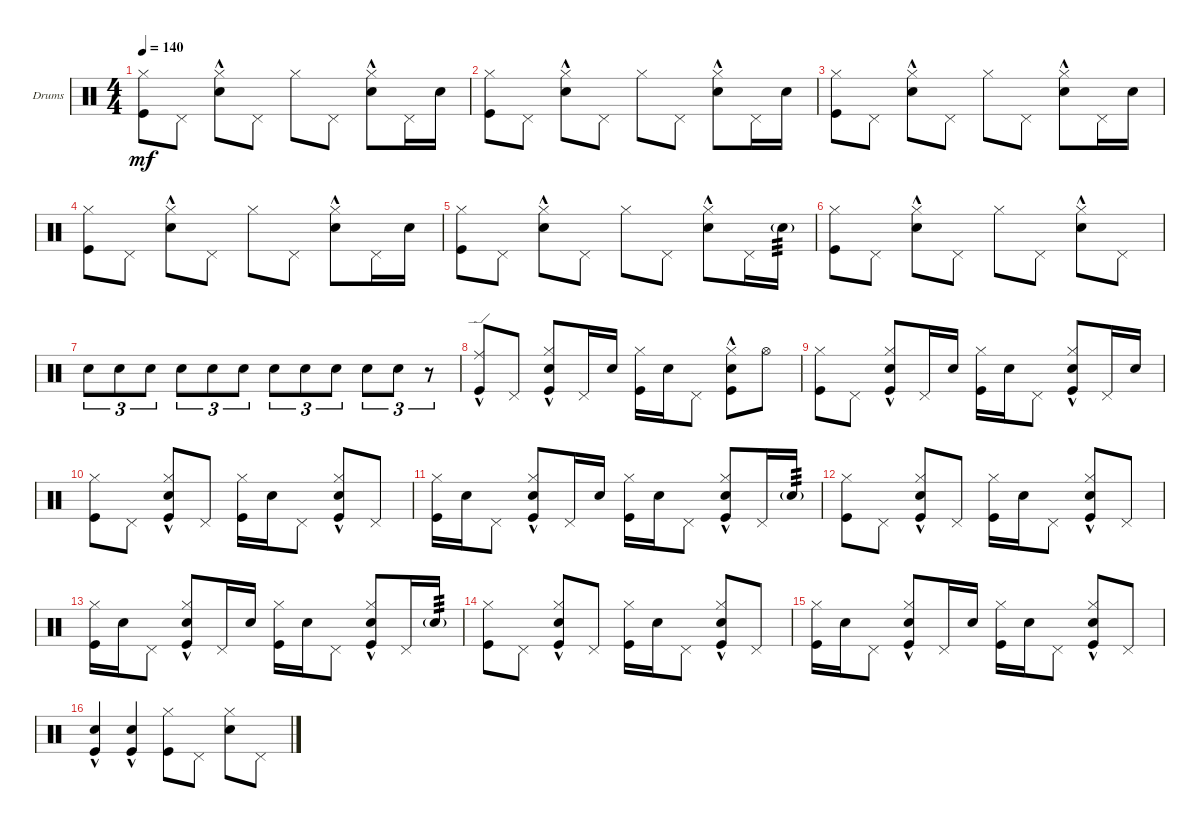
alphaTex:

\defaultSystemsLayout 4
\bracketExtendMode groupsimilarinstruments
\firstSystemTrackNameOrientation horizontal
\otherSystemsTrackNameOrientation horizontal
\track ("Drumkit" "Drums") {instrument percussion}
\staff {score}
\articulation defaults
\ts (4 4)
\tempo 140
\clef neutral
\ks c
("Kick (hit)" "Hi-Hat (closed)").8{dy mf} "Pedal Hi-Hat (hit)".8 ("Hi-Hat (closed)" "Snare (hit) 2"{hac}).8 "Pedal Hi-Hat (hit)".8 "Hi-Hat (closed)".8 "Pedal Hi-Hat (hit)".8 ("Hi-Hat (closed)" "Snare (hit) 2"{hac}).8 "Pedal Hi-Hat (hit)".16 "Snare (hit) 2".16 |
("Kick (hit)" "Hi-Hat (closed)").8 "Pedal Hi-Hat (hit)".8 ("Hi-Hat (closed)" "Snare (hit) 2"{hac}).8 "Pedal Hi-Hat (hit)".8 "Hi-Hat (closed)".8 "Pedal Hi-Hat (hit)".8 ("Hi-Hat (closed)" "Snare (hit) 2"{hac}).8 "Pedal Hi-Hat (hit)".16 "Snare (hit) 2".16 |
("Kick (hit)" "Hi-Hat (closed)").8 "Pedal Hi-Hat (hit)".8 ("Hi-Hat (closed)" "Snare (hit) 2"{hac}).8 "Pedal Hi-Hat (hit)".8 "Hi-Hat (closed)".8 "Pedal Hi-Hat (hit)".8 ("Hi-Hat (closed)" "Snare (hit) 2"{hac}).8 "Pedal Hi-Hat (hit)".16 "Snare (hit) 2".16 |
("Kick (hit)" "Hi-Hat (closed)").8 "Pedal Hi-Hat (hit)".8 ("Hi-Hat (closed)" "Snare (hit) 2"{hac}).8 "Pedal Hi-Hat (hit)".8 "Hi-Hat (closed)".8 "Pedal Hi-Hat (hit)".8 ("Hi-Hat (closed)" "Snare (hit) 2"{hac}).8 "Pedal Hi-Hat (hit)".16 "Snare (hit) 2".16 |
("Kick (hit)" "Hi-Hat (closed)").8 "Pedal Hi-Hat (hit)".8 ("Hi-Hat (closed)" "Snare (hit) 2"{hac}).8 "Pedal Hi-Hat (hit)".8 "Hi-Hat (closed)".8 "Pedal Hi-Hat (hit)".8 ("Hi-Hat (closed)" "Snare (hit) 2"{hac}).8 "Pedal Hi-Hat (hit)".16 "Snare (hit) 2"{g}.16{tp 3} |
("Kick (hit)" "Hi-Hat (closed)").8 "Pedal Hi-Hat (hit)".8 ("Hi-Hat (closed)" "Snare (hit) 2"{hac}).8 "Pedal Hi-Hat (hit)".8 "Hi-Hat (closed)".8 "Pedal Hi-Hat (hit)".8 ("Hi-Hat (closed)" "Snare (hit) 2"{hac}).8 "Pedal Hi-Hat (hit)".8 |
"Snare (hit) 2".8{tu (3 2)} "Snare (hit) 2".8{tu (3 2)} "Snare (hit) 2".8{tu (3 2)} "Snare (hit) 2".8{tu (3 2)} "Snare (hit) 2".8{tu (3 2)} "Snare (hit) 2".8{tu (3 2)} "Snare (hit) 2".8{tu (3 2)} "Snare (hit) 2".8{tu (3 2)} "Snare (hit) 2".8{tu (3 2)} "Snare (hit) 2".8{tu (3 2)} "Snare (hit) 2".8{tu (3 2)} r.8{tu (3 2)} |
("Kick (hit)" "Ride (edge)"{hac}).8 "Pedal Hi-Hat (hit)".8 ("Hi-Hat (closed)" "Kick (hit)" "Snare (hit) 2"{hac}).8 "Pedal Hi-Hat (hit)".16 "Snare (hit) 2".16 ("Kick (hit)" "Hi-Hat (closed)").16 "Snare (hit) 2".16 "Pedal Hi-Hat (hit)".8 ("Hi-Hat (closed)" "Kick (hit)" "Snare (hit) 2"{hac}).8 "Hi-Hat (open)".8 |
("Kick (hit)" "Hi-Hat (closed)").8 "Pedal Hi-Hat (hit)".8 ("Hi-Hat (closed)" "Kick (hit)" "Snare (hit) 2"{hac}).8 "Pedal Hi-Hat (hit)".16 "Snare (hit) 2".16 ("Kick (hit)" "Hi-Hat (closed)").16 "Snare (hit) 2".16 "Pedal Hi-Hat (hit)".8 ("Hi-Hat (closed)" "Kick (hit)" "Snare (hit) 2"{hac}).8 "Pedal Hi-Hat (hit)".16 "Snare (hit) 2".16 |
("Kick (hit)" "Hi-Hat (closed)").8 "Pedal Hi-Hat (hit)".8 ("Hi-Hat (closed)" "Kick (hit)" "Snare (hit) 2"{hac}).8 "Pedal Hi-Hat (hit)".8 ("Kick (hit)" "Hi-Hat (closed)").16 "Snare (hit) 2".16 "Pedal Hi-Hat (hit)".8 ("Hi-Hat (closed)" "Kick (hit)" "Snare (hit) 2"{hac}).8 "Pedal Hi-Hat (hit)".8 |
("Kick (hit)" "Hi-Hat (closed)").16 "Snare (hit) 2".16 "Pedal Hi-Hat (hit)".8 ("Hi-Hat (closed)" "Kick (hit)" "Snare (hit) 2"{hac}).8 "Pedal Hi-Hat (hit)".16 "Snare (hit) 2".16 ("Kick (hit)" "Hi-Hat (closed)").16 "Snare (hit) 2".16 "Pedal Hi-Hat (hit)".8 ("Hi-Hat (closed)" "Kick (hit)" "Snare (hit) 2"{hac}).8 "Pedal Hi-Hat (hit)".16 "Snare (hit) 2"{g}.16{tp 3} |
("Kick (hit)" "Hi-Hat (closed)").8 "Pedal Hi-Hat (hit)".8 ("Hi-Hat (closed)" "Kick (hit)" "Snare (hit) 2"{hac}).8 "Pedal Hi-Hat (hit)".8 ("Kick (hit)" "Hi-Hat (closed)").16 "Snare (hit) 2".16 "Pedal Hi-Hat (hit)".8 ("Hi-Hat (closed)" "Kick (hit)" "Snare (hit) 2"{hac}).8 "Pedal Hi-Hat (hit)".8 |
("Kick (hit)" "Hi-Hat (closed)").16 "Snare (hit) 2".16 "Pedal Hi-Hat (hit)".8 ("Hi-Hat (closed)" "Kick (hit)" "Snare (hit) 2"{hac}).8 "Pedal Hi-Hat (hit)".16 "Snare (hit) 2".16 ("Kick (hit)" "Hi-Hat (closed)").16 "Snare (hit) 2".16 "Pedal Hi-Hat (hit)".8 ("Hi-Hat (closed)" "Kick (hit)" "Snare (hit) 2"{hac}).8 "Pedal Hi-Hat (hit)".16 "Snare (hit) 2"{g}.16{tp 3} |
("Kick (hit)" "Hi-Hat (closed)").8 "Pedal Hi-Hat (hit)".8 ("Hi-Hat (closed)" "Kick (hit)" "Snare (hit) 2"{hac}).8 "Pedal Hi-Hat (hit)".8 ("Kick (hit)" "Hi-Hat (closed)").16 "Snare (hit) 2".16 "Pedal Hi-Hat (hit)".8 ("Hi-Hat (closed)" "Kick (hit)" "Snare (hit) 2"{hac}).8 "Pedal Hi-Hat (hit)".8 |
("Kick (hit)" "Hi-Hat (closed)").16 "Snare (hit) 2".16 "Pedal Hi-Hat (hit)".8 ("Hi-Hat (closed)" "Kick (hit)" "Snare (hit) 2"{hac}).8 "Pedal Hi-Hat (hit)".16 "Snare (hit) 2".16 ("Kick (hit)" "Hi-Hat (closed)").16 "Snare (hit) 2".16 "Pedal Hi-Hat (hit)".8 ("Hi-Hat (closed)" "Kick (hit)" "Snare (hit) 2"{hac}).8 "Pedal Hi-Hat (hit)".8 |
("Kick (hit)" "Snare (hit) 2"{hac}).4 ("Kick (hit)" "Snare (hit) 2"{hac}).4 ("Hi-Hat (closed)" "Kick (hit)").8 "Pedal Hi-Hat (hit)".8 ("Hi-Hat (closed)" "Snare (hit) 2").8 "Pedal Hi-Hat (hit)".8
